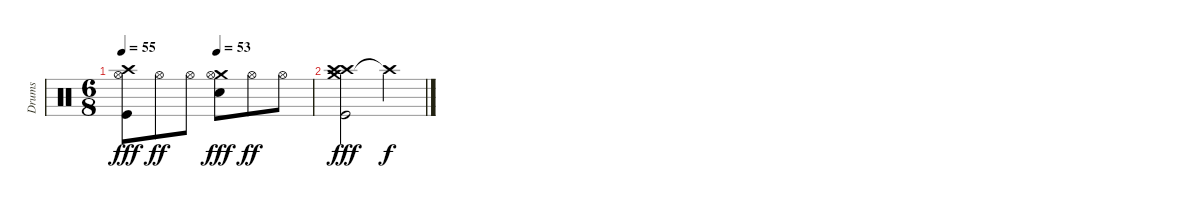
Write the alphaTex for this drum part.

\track ("Drums" "Drums") {instrument percussion}
\staff {score}
\articulation defaults
\ts (6 8)
\tempo 55
\tempo (53 0.5)
\clef neutral
\ks c
("Crash high (hit)" "Hi-Hat (open)" "Kick (hit)").8{dy fff} "Hi-Hat (open)".8{dy ff} "Hi-Hat (open)".8 ("Crash medium (hit)" "Hi-Hat (open)" "Snare (hit) 2").8{dy fff} "Hi-Hat (open)".8{dy ff} "Hi-Hat (open)".8 |
("Crash medium (hit)" "Crash high (hit)" "Crash high (hit)" "Kick (hit)").2{dy fff} "Crash high (hit)"{t}.4{dy f}
